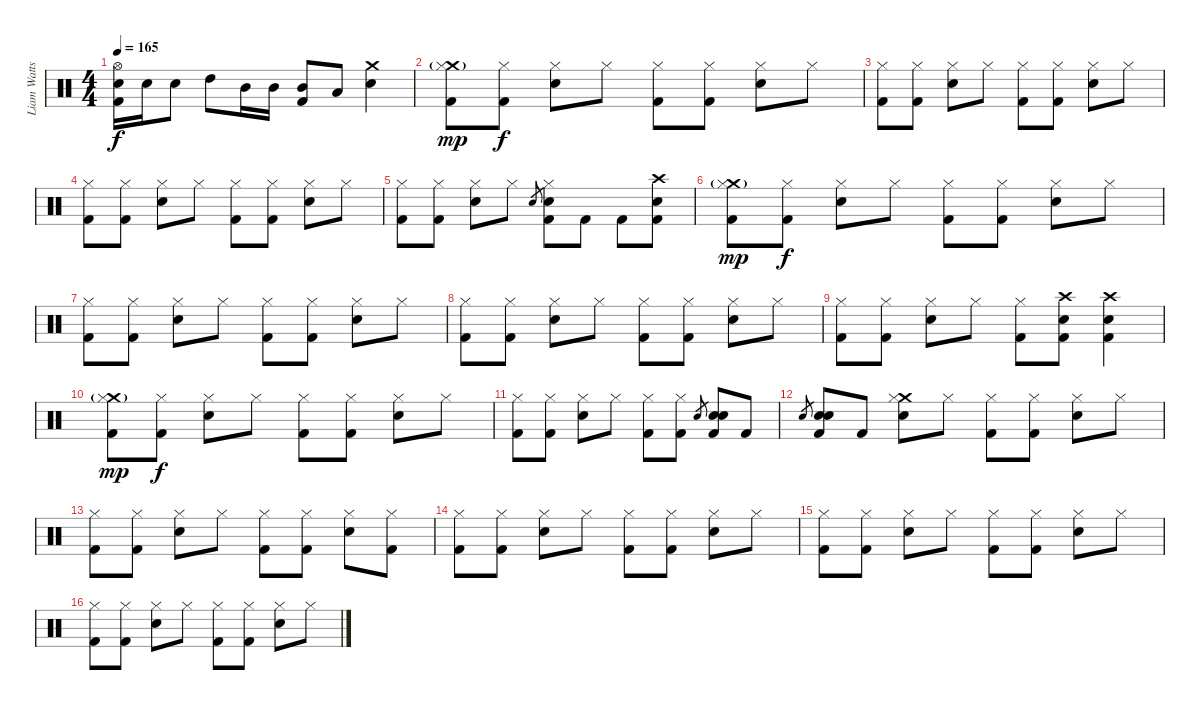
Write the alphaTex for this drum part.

\track ("Liam Watts (Percussion)" "Liam Watts") {instrument percussion}
\staff {score}
\articulation defaults
\ts (4 4)
\tempo 165
\clef neutral
\ks c
("Hi-Hat (open)" "Snare (hit) 2" "Kick (hit) 2").16{dy f} "Snare (hit) 2".16 "Snare (hit) 2".8 "High Tom (hit)".8 "Mid Tom (hit)".16 "Mid Tom (hit)".16 ("Mid Tom (hit)" "Kick (hit) 2").8 "Low Tom (hit)".8 ("Crash medium (hit)" "Snare (hit) 2").4 |
("Crash medium (hit)"{g} "Hi-Hat (closed)" "Kick (hit) 2").8{dy mp} ("Hi-Hat (closed)" "Kick (hit) 2").8{dy f} ("Hi-Hat (closed)" "Snare (hit) 2").8 "Hi-Hat (closed)".8 ("Hi-Hat (closed)" "Kick (hit) 2").8 ("Hi-Hat (closed)" "Kick (hit) 2").8 ("Hi-Hat (closed)" "Snare (hit) 2").8 "Hi-Hat (closed)".8 |
("Hi-Hat (closed)" "Kick (hit) 2").8 ("Hi-Hat (closed)" "Kick (hit) 2").8 ("Hi-Hat (closed)" "Snare (hit) 2").8 "Hi-Hat (closed)".8 ("Hi-Hat (closed)" "Kick (hit) 2").8 ("Hi-Hat (closed)" "Kick (hit) 2").8 ("Hi-Hat (closed)" "Snare (hit) 2").8 "Hi-Hat (closed)".8 |
("Hi-Hat (closed)" "Kick (hit) 2").8 ("Hi-Hat (closed)" "Kick (hit) 2").8 ("Hi-Hat (closed)" "Snare (hit) 2").8 "Hi-Hat (closed)".8 ("Hi-Hat (closed)" "Kick (hit) 2").8 ("Hi-Hat (closed)" "Kick (hit) 2").8 ("Hi-Hat (closed)" "Snare (hit) 2").8 "Hi-Hat (closed)".8 |
("Hi-Hat (closed)" "Kick (hit) 2").8 ("Hi-Hat (closed)" "Kick (hit) 2").8 ("Hi-Hat (closed)" "Snare (hit) 2").8 "Hi-Hat (closed)".8 "Snare (hit) 2".8{gr} ("Hi-Hat (closed)" "Snare (hit) 2" "Kick (hit) 2").8 "Kick (hit) 2".8 "Kick (hit) 2".8 ("Crash high (hit)" "Snare (hit) 2" "Kick (hit) 2").8 |
("Crash medium (hit)"{g} "Hi-Hat (closed)" "Kick (hit) 2").8{dy mp} ("Hi-Hat (closed)" "Kick (hit) 2").8{dy f} ("Hi-Hat (closed)" "Snare (hit) 2").8 "Hi-Hat (closed)".8 ("Hi-Hat (closed)" "Kick (hit) 2").8 ("Hi-Hat (closed)" "Kick (hit) 2").8 ("Hi-Hat (closed)" "Snare (hit) 2").8 "Hi-Hat (closed)".8 |
("Hi-Hat (closed)" "Kick (hit) 2").8 ("Hi-Hat (closed)" "Kick (hit) 2").8 ("Hi-Hat (closed)" "Snare (hit) 2").8 "Hi-Hat (closed)".8 ("Hi-Hat (closed)" "Kick (hit) 2").8 ("Hi-Hat (closed)" "Kick (hit) 2").8 ("Hi-Hat (closed)" "Snare (hit) 2").8 "Hi-Hat (closed)".8 |
("Hi-Hat (closed)" "Kick (hit) 2").8 ("Hi-Hat (closed)" "Kick (hit) 2").8 ("Hi-Hat (closed)" "Snare (hit) 2").8 "Hi-Hat (closed)".8 ("Hi-Hat (closed)" "Kick (hit) 2").8 ("Hi-Hat (closed)" "Kick (hit) 2").8 ("Hi-Hat (closed)" "Snare (hit) 2").8 "Hi-Hat (closed)".8 |
("Hi-Hat (closed)" "Kick (hit) 2").8 ("Hi-Hat (closed)" "Kick (hit) 2").8 ("Hi-Hat (closed)" "Snare (hit) 2").8 "Hi-Hat (closed)".8 ("Hi-Hat (closed)" "Kick (hit) 2").8 ("Crash high (hit)" "Snare (hit) 2" "Kick (hit) 2").8 ("Crash high (hit)" "Snare (hit) 2" "Kick (hit) 2").4 |
("Crash medium (hit)"{g} "Hi-Hat (closed)" "Kick (hit) 2").8{dy mp} ("Hi-Hat (closed)" "Kick (hit) 2").8{dy f} ("Hi-Hat (closed)" "Snare (hit) 2").8 "Hi-Hat (closed)".8 ("Hi-Hat (closed)" "Kick (hit) 2").8 ("Hi-Hat (closed)" "Kick (hit) 2").8 ("Hi-Hat (closed)" "Snare (hit) 2").8 "Hi-Hat (closed)".8 |
("Hi-Hat (closed)" "Kick (hit) 2").8 ("Hi-Hat (closed)" "Kick (hit) 2").8 ("Hi-Hat (closed)" "Snare (hit) 2").8 "Hi-Hat (closed)".8 ("Hi-Hat (closed)" "Kick (hit) 2").8 ("Hi-Hat (closed)" "Kick (hit) 2").8 "Snare (hit) 2".8{gr} ("Snare (hit) 2" "Snare (hit) 2" "Kick (hit) 2").8 "Kick (hit) 2".8 |
"Snare (hit) 2".8{gr} ("Snare (hit) 2" "Snare (hit) 2" "Kick (hit) 2").8 "Kick (hit) 2".8 ("Crash medium (hit)" "Hi-Hat (closed)" "Snare (hit) 2").8 "Hi-Hat (closed)".8 ("Hi-Hat (closed)" "Kick (hit) 2").8 ("Hi-Hat (closed)" "Kick (hit) 2").8 ("Hi-Hat (closed)" "Snare (hit) 2").8 "Hi-Hat (closed)".8 |
("Hi-Hat (closed)" "Kick (hit) 2").8 ("Hi-Hat (closed)" "Kick (hit) 2").8 ("Hi-Hat (closed)" "Snare (hit) 2").8 "Hi-Hat (closed)".8 ("Hi-Hat (closed)" "Kick (hit) 2").8 ("Hi-Hat (closed)" "Kick (hit) 2").8 ("Hi-Hat (closed)" "Snare (hit) 2").8 ("Hi-Hat (closed)" "Kick (hit) 2").8 |
("Hi-Hat (closed)" "Kick (hit) 2").8 ("Hi-Hat (closed)" "Kick (hit) 2").8 ("Hi-Hat (closed)" "Snare (hit) 2").8 "Hi-Hat (closed)".8 ("Hi-Hat (closed)" "Kick (hit) 2").8 ("Hi-Hat (closed)" "Kick (hit) 2").8 ("Hi-Hat (closed)" "Snare (hit) 2").8 "Hi-Hat (closed)".8 |
("Hi-Hat (closed)" "Kick (hit) 2").8 ("Hi-Hat (closed)" "Kick (hit) 2").8 ("Hi-Hat (closed)" "Snare (hit) 2").8 "Hi-Hat (closed)".8 ("Hi-Hat (closed)" "Kick (hit) 2").8 ("Hi-Hat (closed)" "Kick (hit) 2").8 ("Hi-Hat (closed)" "Snare (hit) 2").8 "Hi-Hat (closed)".8 |
("Hi-Hat (closed)" "Kick (hit) 2").8 ("Hi-Hat (closed)" "Kick (hit) 2").8 ("Hi-Hat (closed)" "Snare (hit) 2").8 "Hi-Hat (closed)".8 ("Hi-Hat (closed)" "Kick (hit) 2").8 ("Hi-Hat (closed)" "Kick (hit) 2").8 ("Hi-Hat (closed)" "Snare (hit) 2").8 "Hi-Hat (closed)".8
